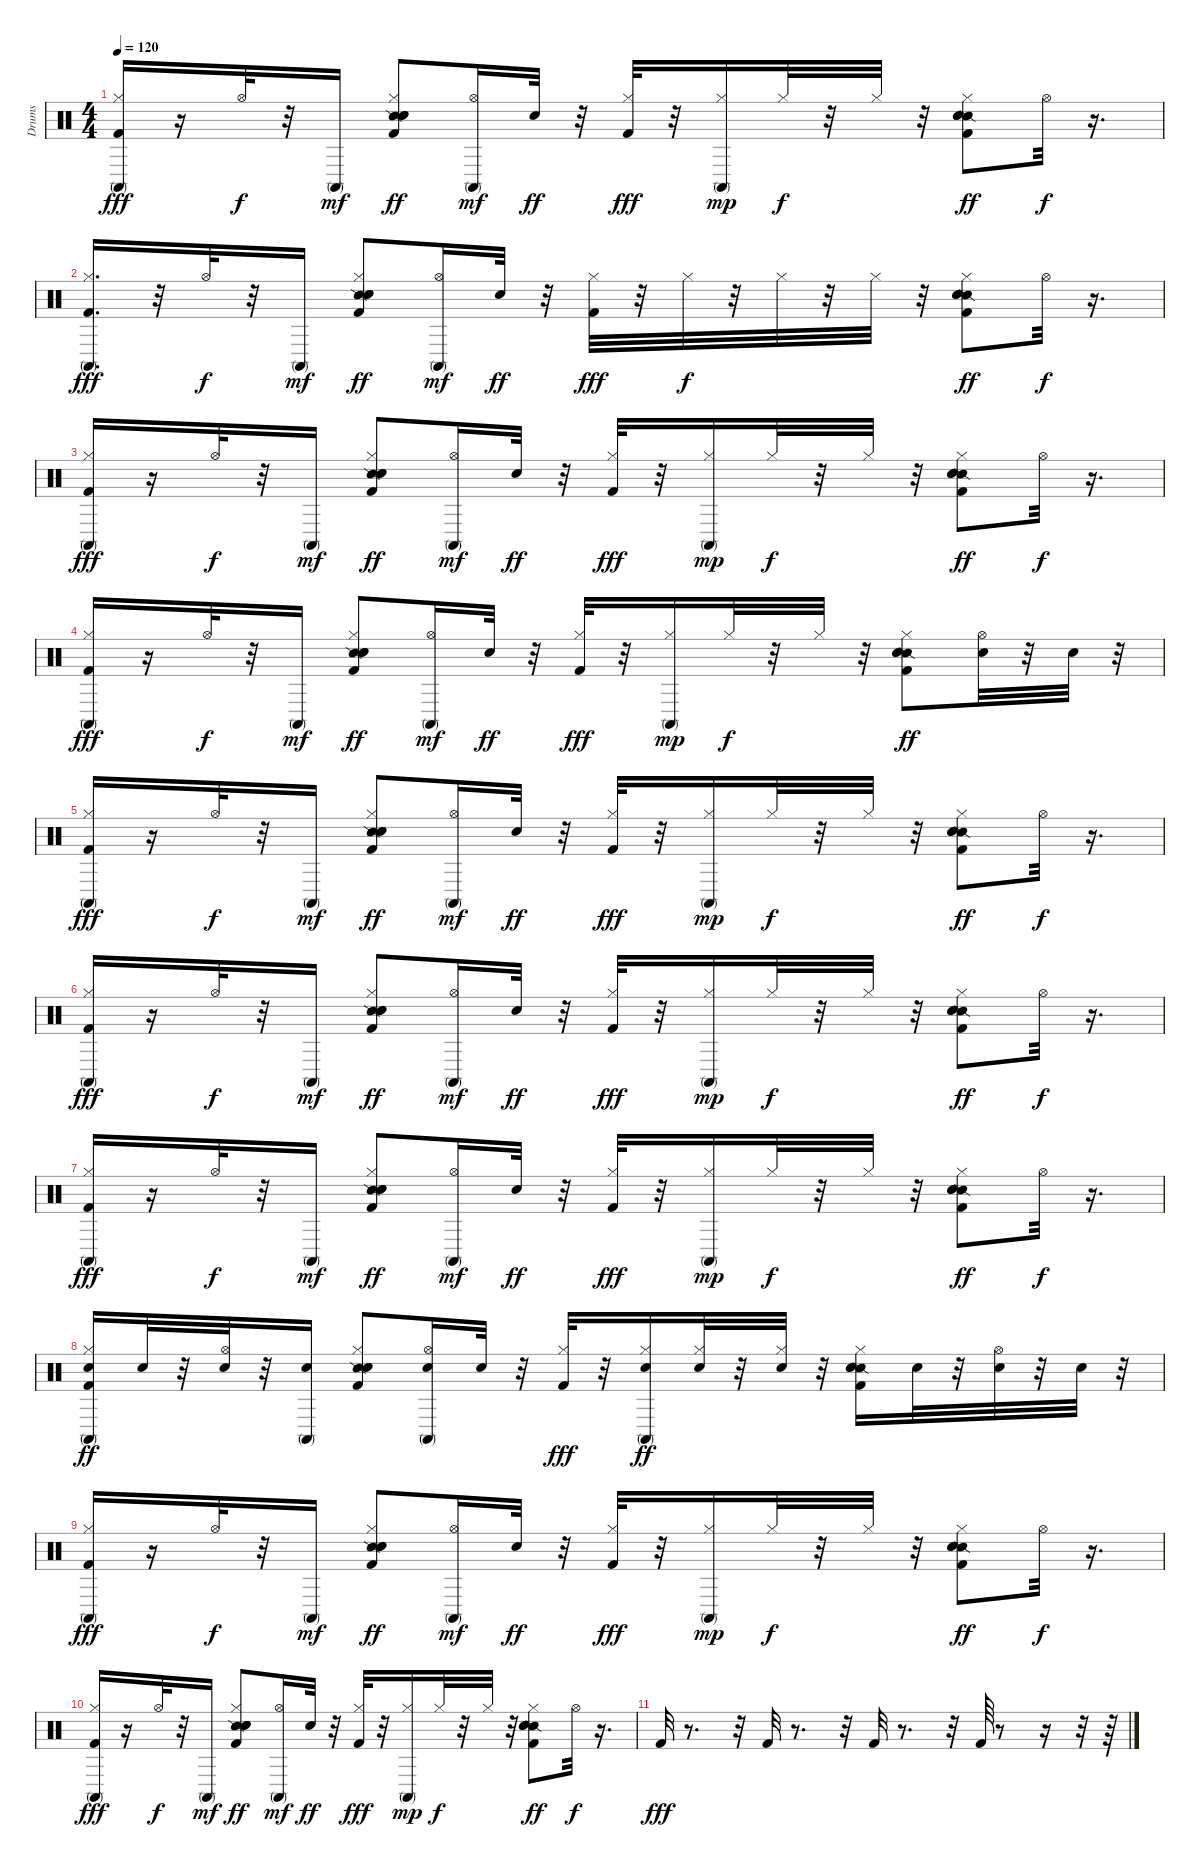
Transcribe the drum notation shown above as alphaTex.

\track ("Drums" "Drums") {instrument percussion}
\staff {score}
\articulation defaults
\ts (4 4)
\tempo 120
\clef neutral
\ks c
("Conga high (mute)" "Kick (hit) 2" "Hi-Hat (closed)").16{dy fff} r.16 "Hi-Hat (open)".32{dy f} r.32 "Conga high (mute)".16{dy mf} ("Snare (side stick) 2" "Kick (hit) 2" "Snare (hit) 2" "Hi-Hat (closed)" "Hand Clap (hit)").8{dy ff} ("Conga high (mute)" "Hi-Hat (open)").16{dy mf} "Snare (hit) 2".32{dy ff} r.32 ("Kick (hit) 2" "Hi-Hat (closed)").32{dy fff} r.32 ("Conga high (mute)" "Hi-Hat (closed)").16{dy mp} "Hi-Hat (closed)".32{dy f} r.32 "Hi-Hat (closed)".32 r.32 ("Snare (side stick) 2" "Kick (hit) 2" "Snare (hit) 2" "Hi-Hat (closed)" "Hand Clap (hit)").8{dy ff} "Hi-Hat (open)".32{dy f} r.16{d} |
("Conga high (mute)" "Kick (hit) 2" "Hi-Hat (closed)").16{d dy fff} r.32 "Hi-Hat (open)".32{dy f} r.32 "Conga high (mute)".16{dy mf} ("Snare (side stick) 2" "Kick (hit) 2" "Snare (hit) 2" "Hi-Hat (closed)" "Hand Clap (hit)").8{dy ff} ("Conga high (mute)" "Hi-Hat (open)").16{dy mf} "Snare (hit) 2".32{dy ff} r.32 ("Kick (hit) 2" "Hi-Hat (closed)").32{dy fff} r.32 "Hi-Hat (closed)".32{dy f} r.32 "Hi-Hat (closed)".32 r.32 "Hi-Hat (closed)".32 r.32 ("Snare (side stick) 2" "Kick (hit) 2" "Snare (hit) 2" "Hi-Hat (closed)" "Hand Clap (hit)").8{dy ff} "Hi-Hat (open)".32{dy f} r.16{d} |
("Conga high (mute)" "Kick (hit) 2" "Hi-Hat (closed)").16{dy fff} r.16 "Hi-Hat (open)".32{dy f} r.32 "Conga high (mute)".16{dy mf} ("Snare (side stick) 2" "Kick (hit) 2" "Snare (hit) 2" "Hi-Hat (closed)" "Hand Clap (hit)").8{dy ff} ("Conga high (mute)" "Hi-Hat (open)").16{dy mf} "Snare (hit) 2".32{dy ff} r.32 ("Kick (hit) 2" "Hi-Hat (closed)").32{dy fff} r.32 ("Conga high (mute)" "Hi-Hat (closed)").16{dy mp} "Hi-Hat (closed)".32{dy f} r.32 "Hi-Hat (closed)".32 r.32 ("Snare (side stick) 2" "Kick (hit) 2" "Snare (hit) 2" "Hi-Hat (closed)" "Hand Clap (hit)").8{dy ff} "Hi-Hat (open)".32{dy f} r.16{d} |
("Conga high (mute)" "Kick (hit) 2" "Hi-Hat (closed)").16{dy fff} r.16 "Hi-Hat (open)".32{dy f} r.32 "Conga high (mute)".16{dy mf} ("Snare (side stick) 2" "Kick (hit) 2" "Snare (hit) 2" "Hi-Hat (closed)" "Hand Clap (hit)").8{dy ff} ("Conga high (mute)" "Hi-Hat (open)").16{dy mf} "Snare (hit) 2".32{dy ff} r.32 ("Kick (hit) 2" "Hi-Hat (closed)").32{dy fff} r.32 ("Conga high (mute)" "Hi-Hat (closed)").16{dy mp} "Hi-Hat (closed)".32{dy f} r.32 "Hi-Hat (closed)".32 r.32 ("Snare (side stick) 2" "Kick (hit) 2" "Snare (hit) 2" "Hi-Hat (closed)" "Hand Clap (hit)").8{dy ff} ("Snare (hit) 2" "Hi-Hat (open)").32 r.32 "Snare (hit) 2".32 r.32 |
("Conga high (mute)" "Kick (hit) 2" "Hi-Hat (closed)").16{dy fff} r.16 "Hi-Hat (open)".32{dy f} r.32 "Conga high (mute)".16{dy mf} ("Snare (side stick) 2" "Kick (hit) 2" "Snare (hit) 2" "Hi-Hat (closed)" "Hand Clap (hit)").8{dy ff} ("Conga high (mute)" "Hi-Hat (open)").16{dy mf} "Snare (hit) 2".32{dy ff} r.32 ("Kick (hit) 2" "Hi-Hat (closed)").32{dy fff} r.32 ("Conga high (mute)" "Hi-Hat (closed)").16{dy mp} "Hi-Hat (closed)".32{dy f} r.32 "Hi-Hat (closed)".32 r.32 ("Snare (side stick) 2" "Kick (hit) 2" "Snare (hit) 2" "Hi-Hat (closed)" "Hand Clap (hit)").8{dy ff} "Hi-Hat (open)".32{dy f} r.16{d} |
("Conga high (mute)" "Kick (hit) 2" "Hi-Hat (closed)").16{dy fff} r.16 "Hi-Hat (open)".32{dy f} r.32 "Conga high (mute)".16{dy mf} ("Snare (side stick) 2" "Kick (hit) 2" "Snare (hit) 2" "Hi-Hat (closed)" "Hand Clap (hit)").8{dy ff} ("Conga high (mute)" "Hi-Hat (open)").16{dy mf} "Snare (hit) 2".32{dy ff} r.32 ("Kick (hit) 2" "Hi-Hat (closed)").32{dy fff} r.32 ("Conga high (mute)" "Hi-Hat (closed)").16{dy mp} "Hi-Hat (closed)".32{dy f} r.32 "Hi-Hat (closed)".32 r.32 ("Snare (side stick) 2" "Kick (hit) 2" "Snare (hit) 2" "Hi-Hat (closed)" "Hand Clap (hit)").8{dy ff} "Hi-Hat (open)".32{dy f} r.16{d} |
("Conga high (mute)" "Kick (hit) 2" "Hi-Hat (closed)").16{dy fff} r.16 "Hi-Hat (open)".32{dy f} r.32 "Conga high (mute)".16{dy mf} ("Snare (side stick) 2" "Kick (hit) 2" "Snare (hit) 2" "Hi-Hat (closed)" "Hand Clap (hit)").8{dy ff} ("Conga high (mute)" "Hi-Hat (open)").16{dy mf} "Snare (hit) 2".32{dy ff} r.32 ("Kick (hit) 2" "Hi-Hat (closed)").32{dy fff} r.32 ("Conga high (mute)" "Hi-Hat (closed)").16{dy mp} "Hi-Hat (closed)".32{dy f} r.32 "Hi-Hat (closed)".32 r.32 ("Snare (side stick) 2" "Kick (hit) 2" "Snare (hit) 2" "Hi-Hat (closed)" "Hand Clap (hit)").8{dy ff} "Hi-Hat (open)".32{dy f} r.16{d} |
("Conga high (mute)" "Kick (hit) 2" "Snare (hit) 2" "Hi-Hat (closed)").16{dy ff} "Snare (hit) 2".32 r.32 ("Snare (hit) 2" "Hi-Hat (open)").32 r.32 ("Conga high (mute)" "Snare (hit) 2").16 ("Snare (side stick) 2" "Kick (hit) 2" "Snare (hit) 2" "Hi-Hat (closed)" "Hand Clap (hit)").8 ("Conga high (mute)" "Snare (hit) 2" "Hi-Hat (open)").16 "Snare (hit) 2".32 r.32 ("Kick (hit) 2" "Hi-Hat (closed)").32{dy fff} r.32 ("Conga high (mute)" "Snare (hit) 2" "Hi-Hat (closed)").16{dy ff} ("Snare (hit) 2" "Hi-Hat (closed)").32 r.32 ("Snare (hit) 2" "Hi-Hat (closed)").32 r.32 ("Snare (side stick) 2" "Kick (hit) 2" "Snare (hit) 2" "Hi-Hat (closed)" "Hand Clap (hit)").16 "Snare (hit) 2".32 r.32 ("Snare (hit) 2" "Hi-Hat (open)").32 r.32 "Snare (hit) 2".32 r.32 |
("Conga high (mute)" "Kick (hit) 2" "Hi-Hat (closed)").16{dy fff} r.16 "Hi-Hat (open)".32{dy f} r.32 "Conga high (mute)".16{dy mf} ("Snare (side stick) 2" "Kick (hit) 2" "Snare (hit) 2" "Hi-Hat (closed)" "Hand Clap (hit)").8{dy ff} ("Conga high (mute)" "Hi-Hat (open)").16{dy mf} "Snare (hit) 2".32{dy ff} r.32 ("Kick (hit) 2" "Hi-Hat (closed)").32{dy fff} r.32 ("Conga high (mute)" "Hi-Hat (closed)").16{dy mp} "Hi-Hat (closed)".32{dy f} r.32 "Hi-Hat (closed)".32 r.32 ("Snare (side stick) 2" "Kick (hit) 2" "Snare (hit) 2" "Hi-Hat (closed)" "Hand Clap (hit)").8{dy ff} "Hi-Hat (open)".32{dy f} r.16{d} |
("Conga high (mute)" "Kick (hit) 2" "Hi-Hat (closed)").16{dy fff} r.16 "Hi-Hat (open)".32{dy f} r.32 "Conga high (mute)".16{dy mf} ("Snare (side stick) 2" "Kick (hit) 2" "Snare (hit) 2" "Hi-Hat (closed)" "Hand Clap (hit)").8{dy ff} ("Conga high (mute)" "Hi-Hat (open)").16{dy mf} "Snare (hit) 2".32{dy ff} r.32 ("Kick (hit) 2" "Hi-Hat (closed)").32{dy fff} r.32 ("Conga high (mute)" "Hi-Hat (closed)").16{dy mp} "Hi-Hat (closed)".32{dy f} r.32 "Hi-Hat (closed)".32 r.32 ("Snare (side stick) 2" "Kick (hit) 2" "Snare (hit) 2" "Hi-Hat (closed)" "Hand Clap (hit)").8{dy ff} "Hi-Hat (open)".32{dy f} r.16{d} |
"Kick (hit) 2".32{dy fff} r.8{d} r.32 "Kick (hit) 2".32 r.8{d} r.32 "Kick (hit) 2".32 r.8{d} r.32 "Kick (hit) 2".64 r.8 r.16 r.32 r.64
